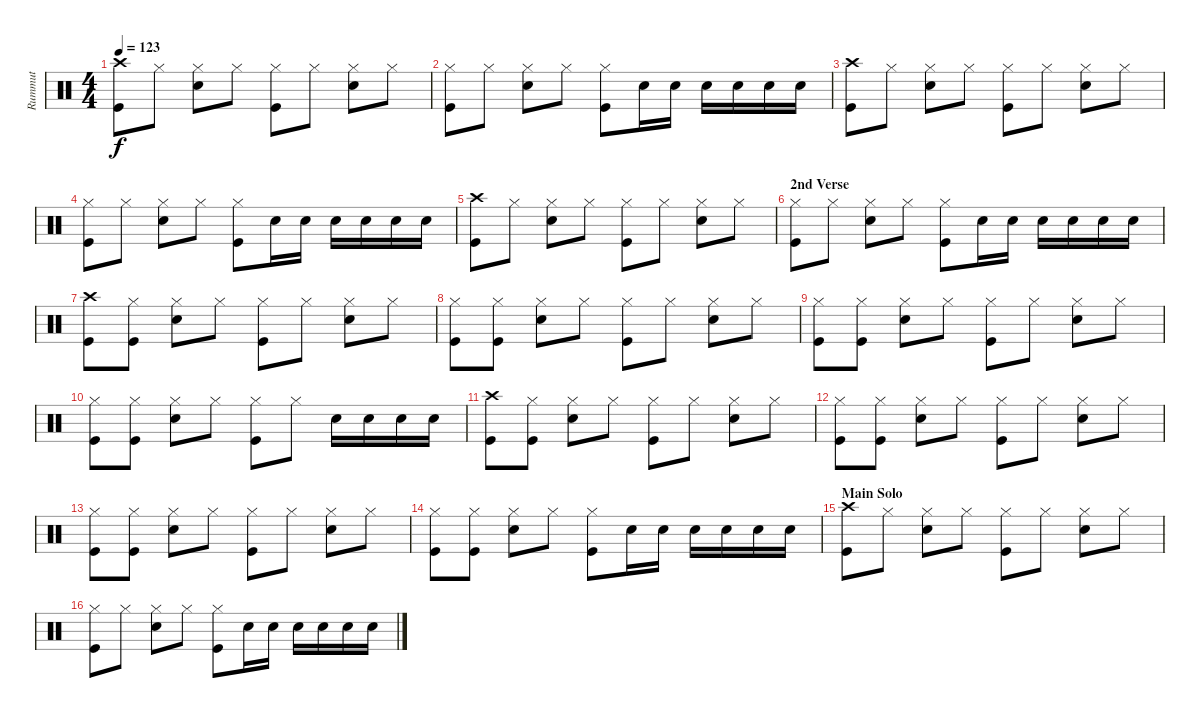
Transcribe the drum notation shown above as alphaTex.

\track ("Rummut" "Rummut") {instrument percussion}
\staff {score}
\articulation defaults
\ts (4 4)
\tempo 123
\clef neutral
\ks c
("Crash high (hit)" "Kick (hit)").8{dy f} "Hi-Hat (closed)".8 ("Hi-Hat (closed)" "Snare (hit) 2").8 "Hi-Hat (closed)".8 ("Hi-Hat (closed)" "Kick (hit)").8 "Hi-Hat (closed)".8 ("Hi-Hat (closed)" "Snare (hit) 2").8 "Hi-Hat (closed)".8 |
("Hi-Hat (closed)" "Kick (hit)").8 "Hi-Hat (closed)".8 ("Hi-Hat (closed)" "Snare (hit) 2").8 "Hi-Hat (closed)".8 ("Hi-Hat (closed)" "Kick (hit)").8 "Snare (hit) 2".16 "Snare (hit) 2".16 "Snare (hit) 2".16 "Snare (hit) 2".16 "Snare (hit) 2".16 "Snare (hit) 2".16 |
("Crash high (hit)" "Kick (hit)").8 "Hi-Hat (closed)".8 ("Hi-Hat (closed)" "Snare (hit) 2").8 "Hi-Hat (closed)".8 ("Hi-Hat (closed)" "Kick (hit)").8 "Hi-Hat (closed)".8 ("Hi-Hat (closed)" "Snare (hit) 2").8 "Hi-Hat (closed)".8 |
("Hi-Hat (closed)" "Kick (hit)").8 "Hi-Hat (closed)".8 ("Hi-Hat (closed)" "Snare (hit) 2").8 "Hi-Hat (closed)".8 ("Hi-Hat (closed)" "Kick (hit)").8 "Snare (hit) 2".16 "Snare (hit) 2".16 "Snare (hit) 2".16 "Snare (hit) 2".16 "Snare (hit) 2".16 "Snare (hit) 2".16 |
("Crash high (hit)" "Kick (hit)").8 "Hi-Hat (closed)".8 ("Hi-Hat (closed)" "Snare (hit) 2").8 "Hi-Hat (closed)".8 ("Hi-Hat (closed)" "Kick (hit)").8 "Hi-Hat (closed)".8 ("Hi-Hat (closed)" "Snare (hit) 2").8 "Hi-Hat (closed)".8 |
\section ("" "2nd Verse")
("Hi-Hat (closed)" "Kick (hit)").8 "Hi-Hat (closed)".8 ("Hi-Hat (closed)" "Snare (hit) 2").8 "Hi-Hat (closed)".8 ("Hi-Hat (closed)" "Kick (hit)").8 "Snare (hit) 2".16 "Snare (hit) 2".16 "Snare (hit) 2".16 "Snare (hit) 2".16 "Snare (hit) 2".16 "Snare (hit) 2".16 |
("Crash high (hit)" "Kick (hit)").8 ("Hi-Hat (closed)" "Kick (hit)").8 ("Hi-Hat (closed)" "Snare (hit) 2").8 "Hi-Hat (closed)".8 ("Hi-Hat (closed)" "Kick (hit)").8 "Hi-Hat (closed)".8 ("Hi-Hat (closed)" "Snare (hit) 2").8 "Hi-Hat (closed)".8 |
("Hi-Hat (closed)" "Kick (hit)").8 ("Hi-Hat (closed)" "Kick (hit)").8 ("Hi-Hat (closed)" "Snare (hit) 2").8 "Hi-Hat (closed)".8 ("Hi-Hat (closed)" "Kick (hit)").8 "Hi-Hat (closed)".8 ("Hi-Hat (closed)" "Snare (hit) 2").8 "Hi-Hat (closed)".8 |
("Hi-Hat (closed)" "Kick (hit)").8 ("Hi-Hat (closed)" "Kick (hit)").8 ("Hi-Hat (closed)" "Snare (hit) 2").8 "Hi-Hat (closed)".8 ("Hi-Hat (closed)" "Kick (hit)").8 "Hi-Hat (closed)".8 ("Hi-Hat (closed)" "Snare (hit) 2").8 "Hi-Hat (closed)".8 |
("Hi-Hat (closed)" "Kick (hit)").8 ("Hi-Hat (closed)" "Kick (hit)").8 ("Hi-Hat (closed)" "Snare (hit) 2").8 "Hi-Hat (closed)".8 ("Hi-Hat (closed)" "Kick (hit)").8 "Hi-Hat (closed)".8 "Snare (hit) 2".16 "Snare (hit) 2".16 "Snare (hit) 2".16 "Snare (hit) 2".16 |
("Crash high (hit)" "Kick (hit)").8 ("Hi-Hat (closed)" "Kick (hit)").8 ("Hi-Hat (closed)" "Snare (hit) 2").8 "Hi-Hat (closed)".8 ("Hi-Hat (closed)" "Kick (hit)").8 "Hi-Hat (closed)".8 ("Hi-Hat (closed)" "Snare (hit) 2").8 "Hi-Hat (closed)".8 |
("Hi-Hat (closed)" "Kick (hit)").8 ("Hi-Hat (closed)" "Kick (hit)").8 ("Hi-Hat (closed)" "Snare (hit) 2").8 "Hi-Hat (closed)".8 ("Hi-Hat (closed)" "Kick (hit)").8 "Hi-Hat (closed)".8 ("Hi-Hat (closed)" "Snare (hit) 2").8 "Hi-Hat (closed)".8 |
("Hi-Hat (closed)" "Kick (hit)").8 ("Hi-Hat (closed)" "Kick (hit)").8 ("Hi-Hat (closed)" "Snare (hit) 2").8 "Hi-Hat (closed)".8 ("Hi-Hat (closed)" "Kick (hit)").8 "Hi-Hat (closed)".8 ("Hi-Hat (closed)" "Snare (hit) 2").8 "Hi-Hat (closed)".8 |
("Hi-Hat (closed)" "Kick (hit)").8 ("Hi-Hat (closed)" "Kick (hit)").8 ("Hi-Hat (closed)" "Snare (hit) 2").8 "Hi-Hat (closed)".8 ("Hi-Hat (closed)" "Kick (hit)").8 "Snare (hit) 2".16 "Snare (hit) 2".16 "Snare (hit) 2".16 "Snare (hit) 2".16 "Snare (hit) 2".16 "Snare (hit) 2".16 |
\section ("" "Main Solo")
("Crash high (hit)" "Kick (hit)").8 "Hi-Hat (closed)".8 ("Hi-Hat (closed)" "Snare (hit) 2").8 "Hi-Hat (closed)".8 ("Hi-Hat (closed)" "Kick (hit)").8 "Hi-Hat (closed)".8 ("Hi-Hat (closed)" "Snare (hit) 2").8 "Hi-Hat (closed)".8 |
("Hi-Hat (closed)" "Kick (hit)").8 "Hi-Hat (closed)".8 ("Hi-Hat (closed)" "Snare (hit) 2").8 "Hi-Hat (closed)".8 ("Hi-Hat (closed)" "Kick (hit)").8 "Snare (hit) 2".16 "Snare (hit) 2".16 "Snare (hit) 2".16 "Snare (hit) 2".16 "Snare (hit) 2".16 "Snare (hit) 2".16
